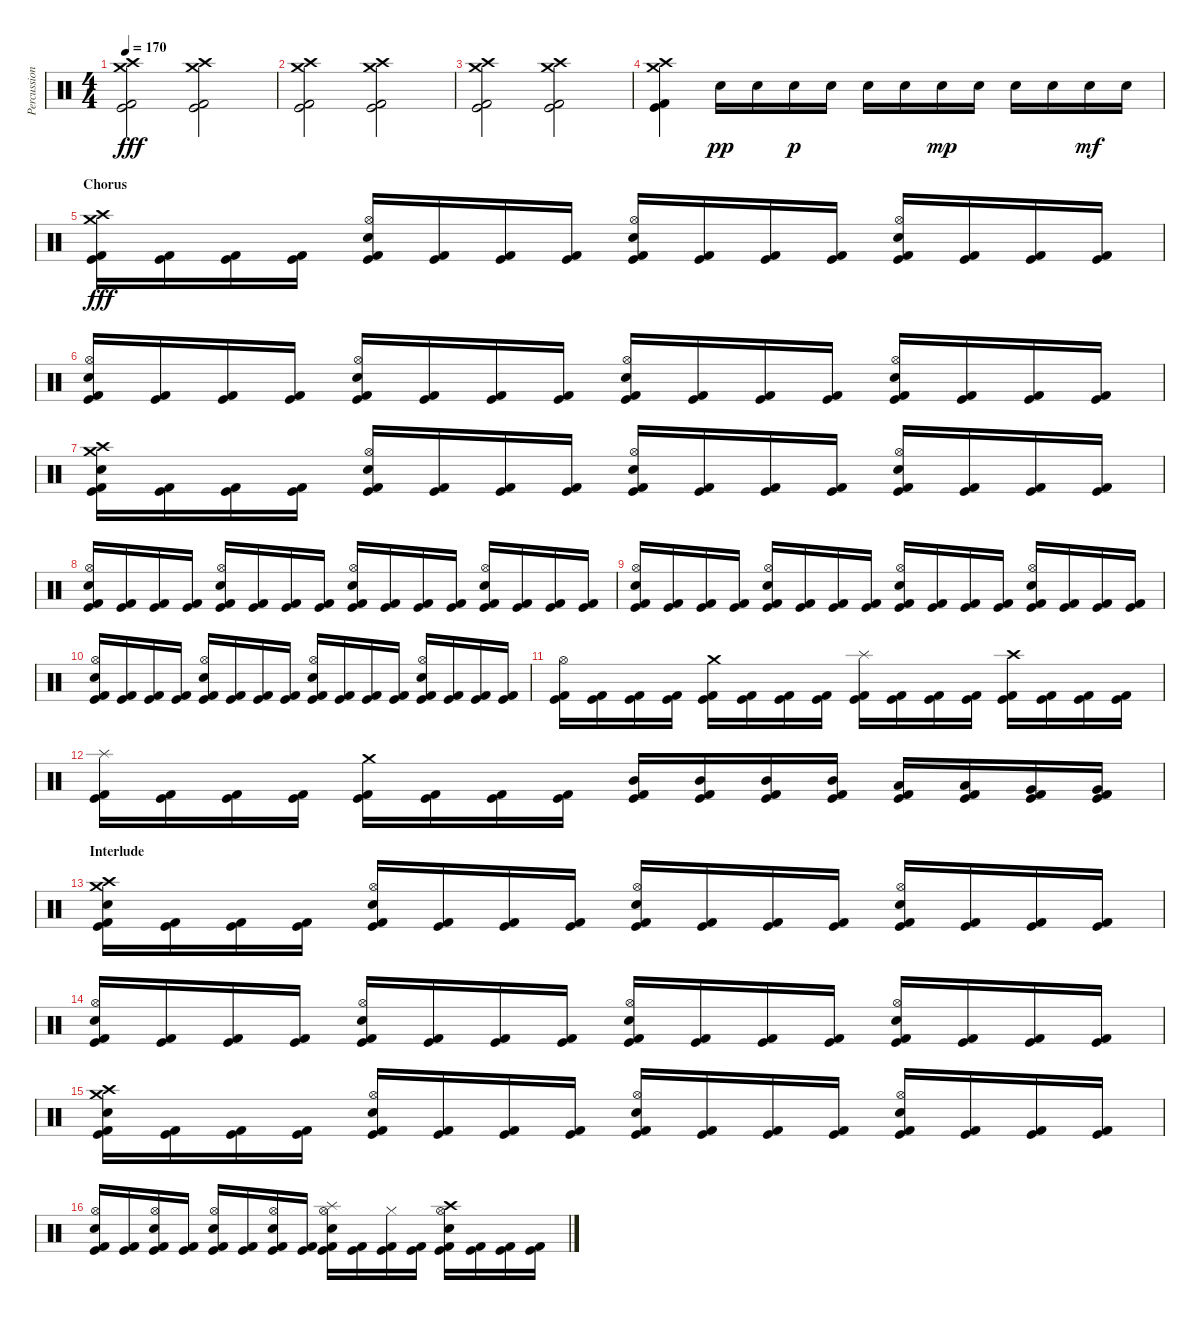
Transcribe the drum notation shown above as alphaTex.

\track ("Percussions" "Percussion") {instrument percussion}
\staff {score}
\articulation defaults
\ts (4 4)
\tempo 170
\clef neutral
\ks c
("Crash high (hit)" "Crash medium (hit)" "Kick (hit)" "Kick (hit) 2").2{dy fff} ("Crash high (hit)" "Crash medium (hit)" "Kick (hit)" "Kick (hit) 2").2 |
("Crash high (hit)" "Crash medium (hit)" "Kick (hit)" "Kick (hit) 2").2 ("Crash high (hit)" "Crash medium (hit)" "Kick (hit)" "Kick (hit) 2").2 |
("Crash high (hit)" "Crash medium (hit)" "Kick (hit)" "Kick (hit) 2").2 ("Crash high (hit)" "Crash medium (hit)" "Kick (hit)" "Kick (hit) 2").2 |
("Crash high (hit)" "Crash medium (hit)" "Kick (hit)" "Kick (hit) 2").4 "Snare (hit) 2".16{dy pp} "Snare (hit) 2".16 "Snare (hit) 2".16{dy p} "Snare (hit) 2".16 "Snare (hit) 2".16 "Snare (hit) 2".16 "Snare (hit) 2".16{dy mp} "Snare (hit) 2".16 "Snare (hit) 2".16 "Snare (hit) 2".16 "Snare (hit) 2".16{dy mf} "Snare (hit) 2".16 |
\section ("" "Chorus")
("Crash high (hit)" "Crash medium (hit)" "Kick (hit)" "Kick (hit) 2").16{dy fff} ("Kick (hit)" "Kick (hit) 2").16 ("Kick (hit)" "Kick (hit) 2").16 ("Kick (hit)" "Kick (hit) 2").16 ("Hi-Hat (open)" "Electric Snare (hit)" "Kick (hit)" "Kick (hit) 2").16 ("Kick (hit)" "Kick (hit) 2").16 ("Kick (hit)" "Kick (hit) 2").16 ("Kick (hit)" "Kick (hit) 2").16 ("Hi-Hat (open)" "Electric Snare (hit)" "Kick (hit)" "Kick (hit) 2").16 ("Kick (hit)" "Kick (hit) 2").16 ("Kick (hit)" "Kick (hit) 2").16 ("Kick (hit)" "Kick (hit) 2").16 ("Hi-Hat (open)" "Electric Snare (hit)" "Kick (hit)" "Kick (hit) 2").16 ("Kick (hit)" "Kick (hit) 2").16 ("Kick (hit)" "Kick (hit) 2").16 ("Kick (hit)" "Kick (hit) 2").16 |
("Hi-Hat (open)" "Electric Snare (hit)" "Kick (hit)" "Kick (hit) 2").16 ("Kick (hit)" "Kick (hit) 2").16 ("Kick (hit)" "Kick (hit) 2").16 ("Kick (hit)" "Kick (hit) 2").16 ("Hi-Hat (open)" "Electric Snare (hit)" "Kick (hit)" "Kick (hit) 2").16 ("Kick (hit)" "Kick (hit) 2").16 ("Kick (hit)" "Kick (hit) 2").16 ("Kick (hit)" "Kick (hit) 2").16 ("Hi-Hat (open)" "Electric Snare (hit)" "Kick (hit)" "Kick (hit) 2").16 ("Kick (hit)" "Kick (hit) 2").16 ("Kick (hit)" "Kick (hit) 2").16 ("Kick (hit)" "Kick (hit) 2").16 ("Hi-Hat (open)" "Electric Snare (hit)" "Kick (hit)" "Kick (hit) 2").16 ("Kick (hit)" "Kick (hit) 2").16 ("Kick (hit)" "Kick (hit) 2").16 ("Kick (hit)" "Kick (hit) 2").16 |
("Crash high (hit)" "Crash medium (hit)" "Electric Snare (hit)" "Kick (hit)" "Kick (hit) 2").16 ("Kick (hit)" "Kick (hit) 2").16 ("Kick (hit)" "Kick (hit) 2").16 ("Kick (hit)" "Kick (hit) 2").16 ("Hi-Hat (open)" "Electric Snare (hit)" "Kick (hit)" "Kick (hit) 2").16 ("Kick (hit)" "Kick (hit) 2").16 ("Kick (hit)" "Kick (hit) 2").16 ("Kick (hit)" "Kick (hit) 2").16 ("Hi-Hat (open)" "Electric Snare (hit)" "Kick (hit)" "Kick (hit) 2").16 ("Kick (hit)" "Kick (hit) 2").16 ("Kick (hit)" "Kick (hit) 2").16 ("Kick (hit)" "Kick (hit) 2").16 ("Hi-Hat (open)" "Electric Snare (hit)" "Kick (hit)" "Kick (hit) 2").16 ("Kick (hit)" "Kick (hit) 2").16 ("Kick (hit)" "Kick (hit) 2").16 ("Kick (hit)" "Kick (hit) 2").16 |
("Hi-Hat (open)" "Electric Snare (hit)" "Kick (hit)" "Kick (hit) 2").16 ("Kick (hit)" "Kick (hit) 2").16 ("Kick (hit)" "Kick (hit) 2").16 ("Kick (hit)" "Kick (hit) 2").16 ("Hi-Hat (open)" "Electric Snare (hit)" "Kick (hit)" "Kick (hit) 2").16 ("Kick (hit)" "Kick (hit) 2").16 ("Kick (hit)" "Kick (hit) 2").16 ("Kick (hit)" "Kick (hit) 2").16 ("Hi-Hat (open)" "Electric Snare (hit)" "Kick (hit)" "Kick (hit) 2").16 ("Kick (hit)" "Kick (hit) 2").16 ("Kick (hit)" "Kick (hit) 2").16 ("Kick (hit)" "Kick (hit) 2").16 ("Hi-Hat (open)" "Electric Snare (hit)" "Kick (hit)" "Kick (hit) 2").16 ("Kick (hit)" "Kick (hit) 2").16 ("Kick (hit)" "Kick (hit) 2").16 ("Kick (hit)" "Kick (hit) 2").16 |
("Hi-Hat (open)" "Electric Snare (hit)" "Kick (hit)" "Kick (hit) 2").16 ("Kick (hit)" "Kick (hit) 2").16 ("Kick (hit)" "Kick (hit) 2").16 ("Kick (hit)" "Kick (hit) 2").16 ("Hi-Hat (open)" "Electric Snare (hit)" "Kick (hit)" "Kick (hit) 2").16 ("Kick (hit)" "Kick (hit) 2").16 ("Kick (hit)" "Kick (hit) 2").16 ("Kick (hit)" "Kick (hit) 2").16 ("Hi-Hat (open)" "Electric Snare (hit)" "Kick (hit)" "Kick (hit) 2").16 ("Kick (hit)" "Kick (hit) 2").16 ("Kick (hit)" "Kick (hit) 2").16 ("Kick (hit)" "Kick (hit) 2").16 ("Hi-Hat (open)" "Electric Snare (hit)" "Kick (hit)" "Kick (hit) 2").16 ("Kick (hit)" "Kick (hit) 2").16 ("Kick (hit)" "Kick (hit) 2").16 ("Kick (hit)" "Kick (hit) 2").16 |
("Hi-Hat (open)" "Electric Snare (hit)" "Kick (hit)" "Kick (hit) 2").16 ("Kick (hit)" "Kick (hit) 2").16 ("Kick (hit)" "Kick (hit) 2").16 ("Kick (hit)" "Kick (hit) 2").16 ("Hi-Hat (open)" "Electric Snare (hit)" "Kick (hit)" "Kick (hit) 2").16 ("Kick (hit)" "Kick (hit) 2").16 ("Kick (hit)" "Kick (hit) 2").16 ("Kick (hit)" "Kick (hit) 2").16 ("Hi-Hat (open)" "Electric Snare (hit)" "Kick (hit)" "Kick (hit) 2").16 ("Kick (hit)" "Kick (hit) 2").16 ("Kick (hit)" "Kick (hit) 2").16 ("Kick (hit)" "Kick (hit) 2").16 ("Hi-Hat (open)" "Electric Snare (hit)" "Kick (hit)" "Kick (hit) 2").16 ("Kick (hit)" "Kick (hit) 2").16 ("Kick (hit)" "Kick (hit) 2").16 ("Kick (hit)" "Kick (hit) 2").16 |
("Hi-Hat (open)" "Kick (hit)" "Kick (hit) 2").16 ("Kick (hit)" "Kick (hit) 2").16 ("Kick (hit)" "Kick (hit) 2").16 ("Kick (hit)" "Kick (hit) 2").16 ("Crash medium (hit)" "Kick (hit)" "Kick (hit) 2").16 ("Kick (hit)" "Kick (hit) 2").16 ("Kick (hit)" "Kick (hit) 2").16 ("Kick (hit)" "Kick (hit) 2").16 ("Splash (hit)" "Kick (hit)" "Kick (hit) 2").16 ("Kick (hit)" "Kick (hit) 2").16 ("Kick (hit)" "Kick (hit) 2").16 ("Kick (hit)" "Kick (hit) 2").16 ("Crash high (hit)" "Kick (hit)" "Kick (hit) 2").16 ("Kick (hit)" "Kick (hit) 2").16 ("Kick (hit)" "Kick (hit) 2").16 ("Kick (hit)" "Kick (hit) 2").16 |
("Splash (hit)" "Kick (hit)" "Kick (hit) 2").16 ("Kick (hit)" "Kick (hit) 2").16 ("Kick (hit)" "Kick (hit) 2").16 ("Kick (hit)" "Kick (hit) 2").16 ("Crash medium (hit)" "Kick (hit)" "Kick (hit) 2").16 ("Kick (hit)" "Kick (hit) 2").16 ("Kick (hit)" "Kick (hit) 2").16 ("Kick (hit)" "Kick (hit) 2").16 ("Mid Tom (hit)" "Kick (hit)" "Kick (hit) 2").16 ("Mid Tom (hit)" "Kick (hit)" "Kick (hit) 2").16 ("Mid Tom (hit)" "Kick (hit)" "Kick (hit) 2").16 ("Mid Tom (hit)" "Kick (hit)" "Kick (hit) 2").16 ("Low Tom (hit)" "Kick (hit)" "Kick (hit) 2").16 ("Low Tom (hit)" "Kick (hit)" "Kick (hit) 2").16 ("Very Low Tom (hit)" "Kick (hit)" "Kick (hit) 2").16 ("Very Low Tom (hit)" "Kick (hit)" "Kick (hit) 2").16 |
\section ("" "Interlude")
("Crash high (hit)" "Crash medium (hit)" "Electric Snare (hit)" "Kick (hit)" "Kick (hit) 2").16 ("Kick (hit)" "Kick (hit) 2").16 ("Kick (hit)" "Kick (hit) 2").16 ("Kick (hit)" "Kick (hit) 2").16 ("Hi-Hat (open)" "Electric Snare (hit)" "Kick (hit)" "Kick (hit) 2").16 ("Kick (hit)" "Kick (hit) 2").16 ("Kick (hit)" "Kick (hit) 2").16 ("Kick (hit)" "Kick (hit) 2").16 ("Hi-Hat (open)" "Electric Snare (hit)" "Kick (hit)" "Kick (hit) 2").16 ("Kick (hit)" "Kick (hit) 2").16 ("Kick (hit)" "Kick (hit) 2").16 ("Kick (hit)" "Kick (hit) 2").16 ("Hi-Hat (open)" "Electric Snare (hit)" "Kick (hit)" "Kick (hit) 2").16 ("Kick (hit)" "Kick (hit) 2").16 ("Kick (hit)" "Kick (hit) 2").16 ("Kick (hit)" "Kick (hit) 2").16 |
("Hi-Hat (open)" "Electric Snare (hit)" "Kick (hit)" "Kick (hit) 2").16 ("Kick (hit)" "Kick (hit) 2").16 ("Kick (hit)" "Kick (hit) 2").16 ("Kick (hit)" "Kick (hit) 2").16 ("Hi-Hat (open)" "Electric Snare (hit)" "Kick (hit)" "Kick (hit) 2").16 ("Kick (hit)" "Kick (hit) 2").16 ("Kick (hit)" "Kick (hit) 2").16 ("Kick (hit)" "Kick (hit) 2").16 ("Hi-Hat (open)" "Electric Snare (hit)" "Kick (hit)" "Kick (hit) 2").16 ("Kick (hit)" "Kick (hit) 2").16 ("Kick (hit)" "Kick (hit) 2").16 ("Kick (hit)" "Kick (hit) 2").16 ("Hi-Hat (open)" "Electric Snare (hit)" "Kick (hit)" "Kick (hit) 2").16 ("Kick (hit)" "Kick (hit) 2").16 ("Kick (hit)" "Kick (hit) 2").16 ("Kick (hit)" "Kick (hit) 2").16 |
("Crash high (hit)" "Crash medium (hit)" "Electric Snare (hit)" "Kick (hit)" "Kick (hit) 2").16 ("Kick (hit)" "Kick (hit) 2").16 ("Kick (hit)" "Kick (hit) 2").16 ("Kick (hit)" "Kick (hit) 2").16 ("Hi-Hat (open)" "Electric Snare (hit)" "Kick (hit)" "Kick (hit) 2").16 ("Kick (hit)" "Kick (hit) 2").16 ("Kick (hit)" "Kick (hit) 2").16 ("Kick (hit)" "Kick (hit) 2").16 ("Hi-Hat (open)" "Electric Snare (hit)" "Kick (hit)" "Kick (hit) 2").16 ("Kick (hit)" "Kick (hit) 2").16 ("Kick (hit)" "Kick (hit) 2").16 ("Kick (hit)" "Kick (hit) 2").16 ("Hi-Hat (open)" "Electric Snare (hit)" "Kick (hit)" "Kick (hit) 2").16 ("Kick (hit)" "Kick (hit) 2").16 ("Kick (hit)" "Kick (hit) 2").16 ("Kick (hit)" "Kick (hit) 2").16 |
("Hi-Hat (open)" "Electric Snare (hit)" "Kick (hit)" "Kick (hit) 2").16 ("Kick (hit)" "Kick (hit) 2").16 ("Hi-Hat (open)" "Electric Snare (hit)" "Kick (hit)" "Kick (hit) 2").16 ("Kick (hit)" "Kick (hit) 2").16 ("Hi-Hat (open)" "Electric Snare (hit)" "Kick (hit)" "Kick (hit) 2").16 ("Kick (hit)" "Kick (hit) 2").16 ("Hi-Hat (open)" "Electric Snare (hit)" "Kick (hit)" "Kick (hit) 2").16 ("Kick (hit)" "Kick (hit) 2").16 ("Splash (hit)" "Hi-Hat (open)" "Electric Snare (hit)" "Kick (hit)" "Kick (hit) 2").16 ("Kick (hit)" "Kick (hit) 2").16 ("Hi-Hat (closed)" "Kick (hit)" "Kick (hit) 2").16 ("Kick (hit)" "Kick (hit) 2").16 ("Crash high (hit)" "Hi-Hat (open)" "Electric Snare (hit)" "Kick (hit)" "Kick (hit) 2").16 ("Kick (hit)" "Kick (hit) 2").16 ("Kick (hit)" "Kick (hit) 2").16 ("Kick (hit)" "Kick (hit) 2").16
